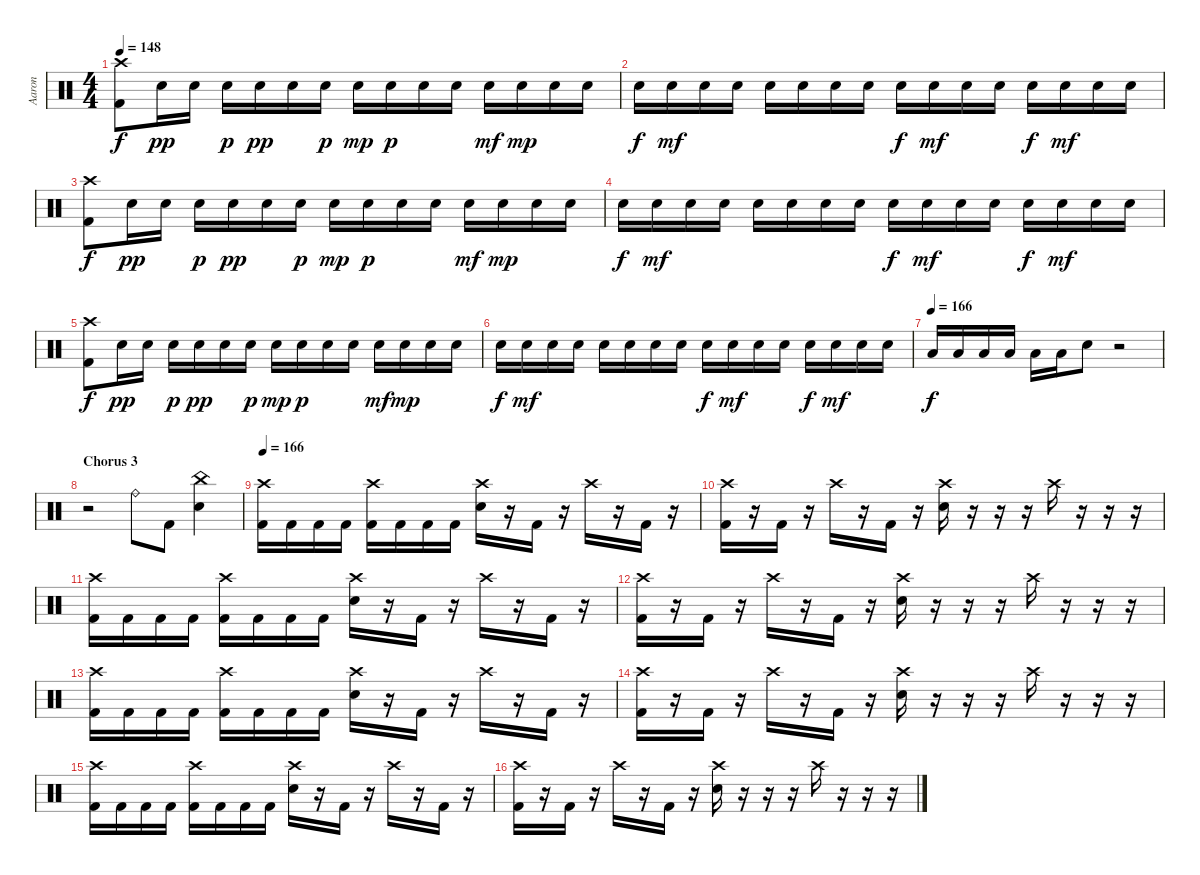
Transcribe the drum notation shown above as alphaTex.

\track ("Aaron" "Aaron") {instrument percussion}
\staff {score}
\articulation defaults
\ts (4 4)
\tempo 148
\clef neutral
\ks c
("Crash high (hit)" "Kick (hit) 2").8{dy f} "Snare (hit) 2".16{dy pp} "Snare (hit) 2".16 "Snare (hit) 2".16{dy p} "Snare (hit) 2".16{dy pp} "Snare (hit) 2".16 "Snare (hit) 2".16{dy p} "Snare (hit) 2".16{dy mp} "Snare (hit) 2".16{dy p} "Snare (hit) 2".16 "Snare (hit) 2".16 "Snare (hit) 2".16{dy mf} "Snare (hit) 2".16{dy mp} "Snare (hit) 2".16 "Snare (hit) 2".16 |
"Snare (hit) 2".16{dy f} "Snare (hit) 2".16{dy mf} "Snare (hit) 2".16 "Snare (hit) 2".16 "Snare (hit) 2".16 "Snare (hit) 2".16 "Snare (hit) 2".16 "Snare (hit) 2".16 "Snare (hit) 2".16{dy f} "Snare (hit) 2".16{dy mf} "Snare (hit) 2".16 "Snare (hit) 2".16 "Snare (hit) 2".16{dy f} "Snare (hit) 2".16{dy mf} "Snare (hit) 2".16 "Snare (hit) 2".16 |
("Crash high (hit)" "Kick (hit) 2").8{dy f} "Snare (hit) 2".16{dy pp} "Snare (hit) 2".16 "Snare (hit) 2".16{dy p} "Snare (hit) 2".16{dy pp} "Snare (hit) 2".16 "Snare (hit) 2".16{dy p} "Snare (hit) 2".16{dy mp} "Snare (hit) 2".16{dy p} "Snare (hit) 2".16 "Snare (hit) 2".16 "Snare (hit) 2".16{dy mf} "Snare (hit) 2".16{dy mp} "Snare (hit) 2".16 "Snare (hit) 2".16 |
"Snare (hit) 2".16{dy f} "Snare (hit) 2".16{dy mf} "Snare (hit) 2".16 "Snare (hit) 2".16 "Snare (hit) 2".16 "Snare (hit) 2".16 "Snare (hit) 2".16 "Snare (hit) 2".16 "Snare (hit) 2".16{dy f} "Snare (hit) 2".16{dy mf} "Snare (hit) 2".16 "Snare (hit) 2".16 "Snare (hit) 2".16{dy f} "Snare (hit) 2".16{dy mf} "Snare (hit) 2".16 "Snare (hit) 2".16 |
("Crash high (hit)" "Kick (hit) 2").8{dy f} "Snare (hit) 2".16{dy pp} "Snare (hit) 2".16 "Snare (hit) 2".16{dy p} "Snare (hit) 2".16{dy pp} "Snare (hit) 2".16 "Snare (hit) 2".16{dy p} "Snare (hit) 2".16{dy mp} "Snare (hit) 2".16{dy p} "Snare (hit) 2".16 "Snare (hit) 2".16 "Snare (hit) 2".16{dy mf} "Snare (hit) 2".16{dy mp} "Snare (hit) 2".16 "Snare (hit) 2".16 |
"Snare (hit) 2".16{dy f} "Snare (hit) 2".16{dy mf} "Snare (hit) 2".16 "Snare (hit) 2".16 "Snare (hit) 2".16 "Snare (hit) 2".16 "Snare (hit) 2".16 "Snare (hit) 2".16 "Snare (hit) 2".16{dy f} "Snare (hit) 2".16{dy mf} "Snare (hit) 2".16 "Snare (hit) 2".16 "Snare (hit) 2".16{dy f} "Snare (hit) 2".16{dy mf} "Snare (hit) 2".16 "Snare (hit) 2".16 |
\tempo (166)
"Low Tom (hit)".16{dy f} "Low Tom (hit)".16 "Low Tom (hit)".16 "Low Tom (hit)".16 "Low Tom (hit)".16 "Low Tom (hit)".16 "Snare (hit) 2".8 r.2 |
\section ("" "Chorus 3")
r.2 "Ride (bell)".8 "Kick (hit) 2".8 ("China (hit)" "Snare (hit) 2").4 |
\tempo 166
("Crash high (hit)" "Kick (hit) 2").16 "Kick (hit) 2".16 "Kick (hit) 2".16 "Kick (hit) 2".16 ("Crash high (hit)" "Kick (hit) 2").16 "Kick (hit) 2".16 "Kick (hit) 2".16 "Kick (hit) 2".16 ("Crash high (hit)" "Snare (hit) 2").16 r.16 "Kick (hit) 2".16 r.16 "Crash high (hit)".16 r.16 "Kick (hit) 2".16 r.16 |
("Crash high (hit)" "Kick (hit) 2").16 r.16 "Kick (hit) 2".16 r.16 "Crash high (hit)".16 r.16 "Kick (hit) 2".16 r.16 ("Crash high (hit)" "Snare (hit) 2").16 r.16 r.16 r.16 "Crash high (hit)".16 r.16 r.16 r.16 |
("Crash high (hit)" "Kick (hit) 2").16 "Kick (hit) 2".16 "Kick (hit) 2".16 "Kick (hit) 2".16 ("Crash high (hit)" "Kick (hit) 2").16 "Kick (hit) 2".16 "Kick (hit) 2".16 "Kick (hit) 2".16 ("Crash high (hit)" "Snare (hit) 2").16 r.16 "Kick (hit) 2".16 r.16 "Crash high (hit)".16 r.16 "Kick (hit) 2".16 r.16 |
("Crash high (hit)" "Kick (hit) 2").16 r.16 "Kick (hit) 2".16 r.16 "Crash high (hit)".16 r.16 "Kick (hit) 2".16 r.16 ("Crash high (hit)" "Snare (hit) 2").16 r.16 r.16 r.16 "Crash high (hit)".16 r.16 r.16 r.16 |
("Crash high (hit)" "Kick (hit) 2").16 "Kick (hit) 2".16 "Kick (hit) 2".16 "Kick (hit) 2".16 ("Crash high (hit)" "Kick (hit) 2").16 "Kick (hit) 2".16 "Kick (hit) 2".16 "Kick (hit) 2".16 ("Crash high (hit)" "Snare (hit) 2").16 r.16 "Kick (hit) 2".16 r.16 "Crash high (hit)".16 r.16 "Kick (hit) 2".16 r.16 |
("Crash high (hit)" "Kick (hit) 2").16 r.16 "Kick (hit) 2".16 r.16 "Crash high (hit)".16 r.16 "Kick (hit) 2".16 r.16 ("Crash high (hit)" "Snare (hit) 2").16 r.16 r.16 r.16 "Crash high (hit)".16 r.16 r.16 r.16 |
("Crash high (hit)" "Kick (hit) 2").16 "Kick (hit) 2".16 "Kick (hit) 2".16 "Kick (hit) 2".16 ("Crash high (hit)" "Kick (hit) 2").16 "Kick (hit) 2".16 "Kick (hit) 2".16 "Kick (hit) 2".16 ("Crash high (hit)" "Snare (hit) 2").16 r.16 "Kick (hit) 2".16 r.16 "Crash high (hit)".16 r.16 "Kick (hit) 2".16 r.16 |
("Crash high (hit)" "Kick (hit) 2").16 r.16 "Kick (hit) 2".16 r.16 "Crash high (hit)".16 r.16 "Kick (hit) 2".16 r.16 ("Crash high (hit)" "Snare (hit) 2").16 r.16 r.16 r.16 "Crash high (hit)".16 r.16 r.16 r.16
